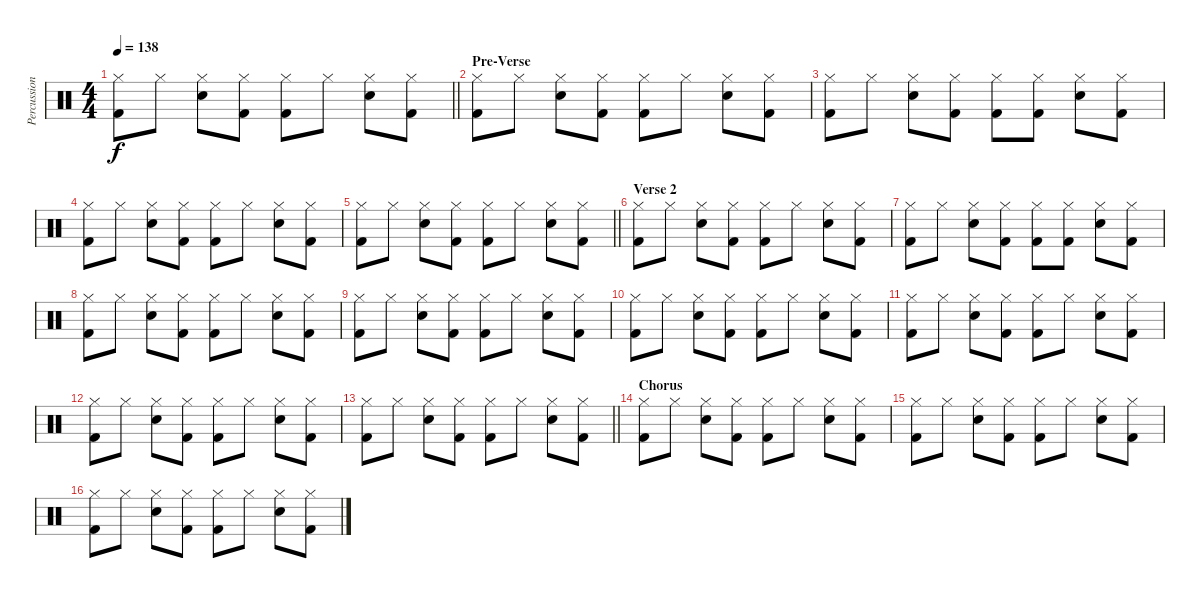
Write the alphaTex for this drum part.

\track ("Percussion" "Percussion") {instrument percussion}
\staff {score}
\articulation defaults
\ts (4 4)
\tempo 138
\clef neutral
\barLineRight lightlight
\ks c
("Hi-Hat (closed)" "Kick (hit) 2").8{dy f} "Hi-Hat (closed)".8 ("Hi-Hat (closed)" "Electric Snare (hit)").8 ("Hi-Hat (closed)" "Kick (hit) 2").8 ("Hi-Hat (closed)" "Kick (hit) 2").8 "Hi-Hat (closed)".8 ("Hi-Hat (closed)" "Electric Snare (hit)").8 ("Hi-Hat (closed)" "Kick (hit) 2").8 |
\section ("" "Pre-Verse")
("Hi-Hat (closed)" "Kick (hit) 2").8 "Hi-Hat (closed)".8 ("Hi-Hat (closed)" "Electric Snare (hit)").8 ("Hi-Hat (closed)" "Kick (hit) 2").8 ("Hi-Hat (closed)" "Kick (hit) 2").8 "Hi-Hat (closed)".8 ("Hi-Hat (closed)" "Electric Snare (hit)").8 ("Hi-Hat (closed)" "Kick (hit) 2").8 |
("Hi-Hat (closed)" "Kick (hit) 2").8 "Hi-Hat (closed)".8 ("Hi-Hat (closed)" "Electric Snare (hit)").8 ("Hi-Hat (closed)" "Kick (hit) 2").8 ("Hi-Hat (closed)" "Kick (hit) 2").8 ("Hi-Hat (closed)" "Kick (hit) 2").8 ("Hi-Hat (closed)" "Electric Snare (hit)").8 ("Hi-Hat (closed)" "Kick (hit) 2").8 |
("Hi-Hat (closed)" "Kick (hit) 2").8 "Hi-Hat (closed)".8 ("Hi-Hat (closed)" "Electric Snare (hit)").8 ("Hi-Hat (closed)" "Kick (hit) 2").8 ("Hi-Hat (closed)" "Kick (hit) 2").8 "Hi-Hat (closed)".8 ("Hi-Hat (closed)" "Electric Snare (hit)").8 ("Hi-Hat (closed)" "Kick (hit) 2").8 |
\barLineRight lightlight
("Hi-Hat (closed)" "Kick (hit) 2").8 "Hi-Hat (closed)".8 ("Hi-Hat (closed)" "Electric Snare (hit)").8 ("Hi-Hat (closed)" "Kick (hit) 2").8 ("Hi-Hat (closed)" "Kick (hit) 2").8 "Hi-Hat (closed)".8 ("Hi-Hat (closed)" "Electric Snare (hit)").8 ("Hi-Hat (closed)" "Kick (hit) 2").8 |
\section ("" "Verse 2")
("Hi-Hat (closed)" "Kick (hit) 2").8 "Hi-Hat (closed)".8 ("Hi-Hat (closed)" "Electric Snare (hit)").8 ("Hi-Hat (closed)" "Kick (hit) 2").8 ("Hi-Hat (closed)" "Kick (hit) 2").8 "Hi-Hat (closed)".8 ("Hi-Hat (closed)" "Electric Snare (hit)").8 ("Hi-Hat (closed)" "Kick (hit) 2").8 |
("Hi-Hat (closed)" "Kick (hit) 2").8 "Hi-Hat (closed)".8 ("Hi-Hat (closed)" "Electric Snare (hit)").8 ("Hi-Hat (closed)" "Kick (hit) 2").8 ("Hi-Hat (closed)" "Kick (hit) 2").8 ("Hi-Hat (closed)" "Kick (hit) 2").8 ("Hi-Hat (closed)" "Electric Snare (hit)").8 ("Hi-Hat (closed)" "Kick (hit) 2").8 |
("Hi-Hat (closed)" "Kick (hit) 2").8 "Hi-Hat (closed)".8 ("Hi-Hat (closed)" "Electric Snare (hit)").8 ("Hi-Hat (closed)" "Kick (hit) 2").8 ("Hi-Hat (closed)" "Kick (hit) 2").8 "Hi-Hat (closed)".8 ("Hi-Hat (closed)" "Electric Snare (hit)").8 ("Hi-Hat (closed)" "Kick (hit) 2").8 |
("Hi-Hat (closed)" "Kick (hit) 2").8 "Hi-Hat (closed)".8 ("Hi-Hat (closed)" "Electric Snare (hit)").8 ("Hi-Hat (closed)" "Kick (hit) 2").8 ("Hi-Hat (closed)" "Kick (hit) 2").8 "Hi-Hat (closed)".8 ("Hi-Hat (closed)" "Electric Snare (hit)").8 ("Hi-Hat (closed)" "Kick (hit) 2").8 |
("Hi-Hat (closed)" "Kick (hit) 2").8 "Hi-Hat (closed)".8 ("Hi-Hat (closed)" "Electric Snare (hit)").8 ("Hi-Hat (closed)" "Kick (hit) 2").8 ("Hi-Hat (closed)" "Kick (hit) 2").8 "Hi-Hat (closed)".8 ("Hi-Hat (closed)" "Electric Snare (hit)").8 ("Hi-Hat (closed)" "Kick (hit) 2").8 |
("Hi-Hat (closed)" "Kick (hit) 2").8 "Hi-Hat (closed)".8 ("Hi-Hat (closed)" "Electric Snare (hit)").8 ("Hi-Hat (closed)" "Kick (hit) 2").8 ("Hi-Hat (closed)" "Kick (hit) 2").8 "Hi-Hat (closed)".8 ("Hi-Hat (closed)" "Electric Snare (hit)").8 ("Hi-Hat (closed)" "Kick (hit) 2").8 |
("Hi-Hat (closed)" "Kick (hit) 2").8 "Hi-Hat (closed)".8 ("Hi-Hat (closed)" "Electric Snare (hit)").8 ("Hi-Hat (closed)" "Kick (hit) 2").8 ("Hi-Hat (closed)" "Kick (hit) 2").8 "Hi-Hat (closed)".8 ("Hi-Hat (closed)" "Electric Snare (hit)").8 ("Hi-Hat (closed)" "Kick (hit) 2").8 |
\barLineRight lightlight
("Hi-Hat (closed)" "Kick (hit) 2").8 "Hi-Hat (closed)".8 ("Hi-Hat (closed)" "Electric Snare (hit)").8 ("Hi-Hat (closed)" "Kick (hit) 2").8 ("Hi-Hat (closed)" "Kick (hit) 2").8 "Hi-Hat (closed)".8 ("Hi-Hat (closed)" "Electric Snare (hit)").8 ("Hi-Hat (closed)" "Kick (hit) 2").8 |
\section ("" "Chorus")
("Hi-Hat (closed)" "Kick (hit) 2").8 "Hi-Hat (closed)".8 ("Hi-Hat (closed)" "Electric Snare (hit)").8 ("Hi-Hat (closed)" "Kick (hit) 2").8 ("Hi-Hat (closed)" "Kick (hit) 2").8 "Hi-Hat (closed)".8 ("Hi-Hat (closed)" "Electric Snare (hit)").8 ("Hi-Hat (closed)" "Kick (hit) 2").8 |
("Hi-Hat (closed)" "Kick (hit) 2").8 "Hi-Hat (closed)".8 ("Hi-Hat (closed)" "Electric Snare (hit)").8 ("Hi-Hat (closed)" "Kick (hit) 2").8 ("Hi-Hat (closed)" "Kick (hit) 2").8 "Hi-Hat (closed)".8 ("Hi-Hat (closed)" "Electric Snare (hit)").8 ("Hi-Hat (closed)" "Kick (hit) 2").8 |
("Hi-Hat (closed)" "Kick (hit) 2").8 "Hi-Hat (closed)".8 ("Hi-Hat (closed)" "Electric Snare (hit)").8 ("Hi-Hat (closed)" "Kick (hit) 2").8 ("Hi-Hat (closed)" "Kick (hit) 2").8 "Hi-Hat (closed)".8 ("Hi-Hat (closed)" "Electric Snare (hit)").8 ("Hi-Hat (closed)" "Kick (hit) 2").8
